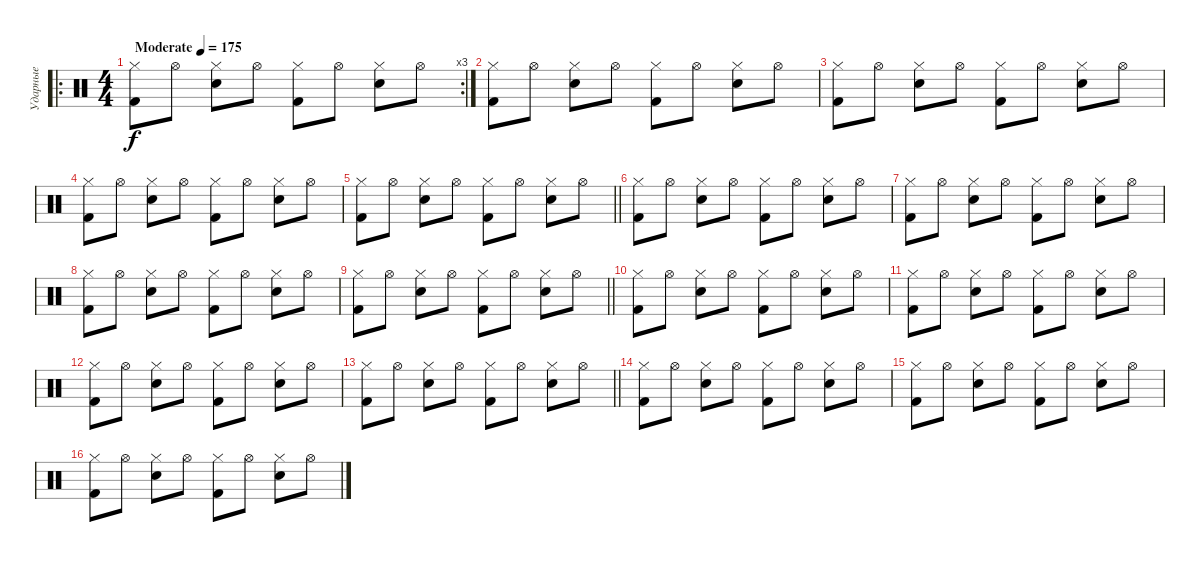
\track ("Ударные" "Ударные") {instrument percussion}
\staff {score}
\articulation defaults
\ro
\rc 3
\ts (4 4)
\tempo (175 "Moderate")
\clef neutral
\ks c
("Hi-Hat (closed)" "Kick (hit) 2").8{dy f} "Hi-Hat (open)".8 ("Hi-Hat (closed)" "Electric Snare (hit)").8 "Hi-Hat (open)".8 ("Hi-Hat (closed)" "Kick (hit) 2").8 "Hi-Hat (open)".8 ("Hi-Hat (closed)" "Electric Snare (hit)").8 "Hi-Hat (open)".8 |
("Hi-Hat (closed)" "Kick (hit) 2").8 "Hi-Hat (open)".8 ("Hi-Hat (closed)" "Electric Snare (hit)").8 "Hi-Hat (open)".8 ("Hi-Hat (closed)" "Kick (hit) 2").8 "Hi-Hat (open)".8 ("Hi-Hat (closed)" "Electric Snare (hit)").8 "Hi-Hat (open)".8 |
("Hi-Hat (closed)" "Kick (hit) 2").8 "Hi-Hat (open)".8 ("Hi-Hat (closed)" "Electric Snare (hit)").8 "Hi-Hat (open)".8 ("Hi-Hat (closed)" "Kick (hit) 2").8 "Hi-Hat (open)".8 ("Hi-Hat (closed)" "Electric Snare (hit)").8 "Hi-Hat (open)".8 |
("Hi-Hat (closed)" "Kick (hit) 2").8 "Hi-Hat (open)".8 ("Hi-Hat (closed)" "Electric Snare (hit)").8 "Hi-Hat (open)".8 ("Hi-Hat (closed)" "Kick (hit) 2").8 "Hi-Hat (open)".8 ("Hi-Hat (closed)" "Electric Snare (hit)").8 "Hi-Hat (open)".8 |
\barLineRight lightlight
("Hi-Hat (closed)" "Kick (hit) 2").8 "Hi-Hat (open)".8 ("Hi-Hat (closed)" "Electric Snare (hit)").8 "Hi-Hat (open)".8 ("Hi-Hat (closed)" "Kick (hit) 2").8 "Hi-Hat (open)".8 ("Hi-Hat (closed)" "Electric Snare (hit)").8 "Hi-Hat (open)".8 |
("Hi-Hat (closed)" "Kick (hit) 2").8 "Hi-Hat (open)".8 ("Hi-Hat (closed)" "Electric Snare (hit)").8 "Hi-Hat (open)".8 ("Hi-Hat (closed)" "Kick (hit) 2").8 "Hi-Hat (open)".8 ("Hi-Hat (closed)" "Electric Snare (hit)").8 "Hi-Hat (open)".8 |
("Hi-Hat (closed)" "Kick (hit) 2").8 "Hi-Hat (open)".8 ("Hi-Hat (closed)" "Electric Snare (hit)").8 "Hi-Hat (open)".8 ("Hi-Hat (closed)" "Kick (hit) 2").8 "Hi-Hat (open)".8 ("Hi-Hat (closed)" "Electric Snare (hit)").8 "Hi-Hat (open)".8 |
("Hi-Hat (closed)" "Kick (hit) 2").8 "Hi-Hat (open)".8 ("Hi-Hat (closed)" "Electric Snare (hit)").8 "Hi-Hat (open)".8 ("Hi-Hat (closed)" "Kick (hit) 2").8 "Hi-Hat (open)".8 ("Hi-Hat (closed)" "Electric Snare (hit)").8 "Hi-Hat (open)".8 |
\barLineRight lightlight
("Hi-Hat (closed)" "Kick (hit) 2").8 "Hi-Hat (open)".8 ("Hi-Hat (closed)" "Electric Snare (hit)").8 "Hi-Hat (open)".8 ("Hi-Hat (closed)" "Kick (hit) 2").8 "Hi-Hat (open)".8 ("Hi-Hat (closed)" "Electric Snare (hit)").8 "Hi-Hat (open)".8 |
("Hi-Hat (closed)" "Kick (hit) 2").8 "Hi-Hat (open)".8 ("Hi-Hat (closed)" "Electric Snare (hit)").8 "Hi-Hat (open)".8 ("Hi-Hat (closed)" "Kick (hit) 2").8 "Hi-Hat (open)".8 ("Hi-Hat (closed)" "Electric Snare (hit)").8 "Hi-Hat (open)".8 |
("Hi-Hat (closed)" "Kick (hit) 2").8 "Hi-Hat (open)".8 ("Hi-Hat (closed)" "Electric Snare (hit)").8 "Hi-Hat (open)".8 ("Hi-Hat (closed)" "Kick (hit) 2").8 "Hi-Hat (open)".8 ("Hi-Hat (closed)" "Electric Snare (hit)").8 "Hi-Hat (open)".8 |
("Hi-Hat (closed)" "Kick (hit) 2").8 "Hi-Hat (open)".8 ("Hi-Hat (closed)" "Electric Snare (hit)").8 "Hi-Hat (open)".8 ("Hi-Hat (closed)" "Kick (hit) 2").8 "Hi-Hat (open)".8 ("Hi-Hat (closed)" "Electric Snare (hit)").8 "Hi-Hat (open)".8 |
\barLineRight lightlight
("Hi-Hat (closed)" "Kick (hit) 2").8 "Hi-Hat (open)".8 ("Hi-Hat (closed)" "Electric Snare (hit)").8 "Hi-Hat (open)".8 ("Hi-Hat (closed)" "Kick (hit) 2").8 "Hi-Hat (open)".8 ("Hi-Hat (closed)" "Electric Snare (hit)").8 "Hi-Hat (open)".8 |
("Hi-Hat (closed)" "Kick (hit) 2").8 "Hi-Hat (open)".8 ("Hi-Hat (closed)" "Electric Snare (hit)").8 "Hi-Hat (open)".8 ("Hi-Hat (closed)" "Kick (hit) 2").8 "Hi-Hat (open)".8 ("Hi-Hat (closed)" "Electric Snare (hit)").8 "Hi-Hat (open)".8 |
("Hi-Hat (closed)" "Kick (hit) 2").8 "Hi-Hat (open)".8 ("Hi-Hat (closed)" "Electric Snare (hit)").8 "Hi-Hat (open)".8 ("Hi-Hat (closed)" "Kick (hit) 2").8 "Hi-Hat (open)".8 ("Hi-Hat (closed)" "Electric Snare (hit)").8 "Hi-Hat (open)".8 |
("Hi-Hat (closed)" "Kick (hit) 2").8 "Hi-Hat (open)".8 ("Hi-Hat (closed)" "Electric Snare (hit)").8 "Hi-Hat (open)".8 ("Hi-Hat (closed)" "Kick (hit) 2").8 "Hi-Hat (open)".8 ("Hi-Hat (closed)" "Electric Snare (hit)").8 "Hi-Hat (open)".8
